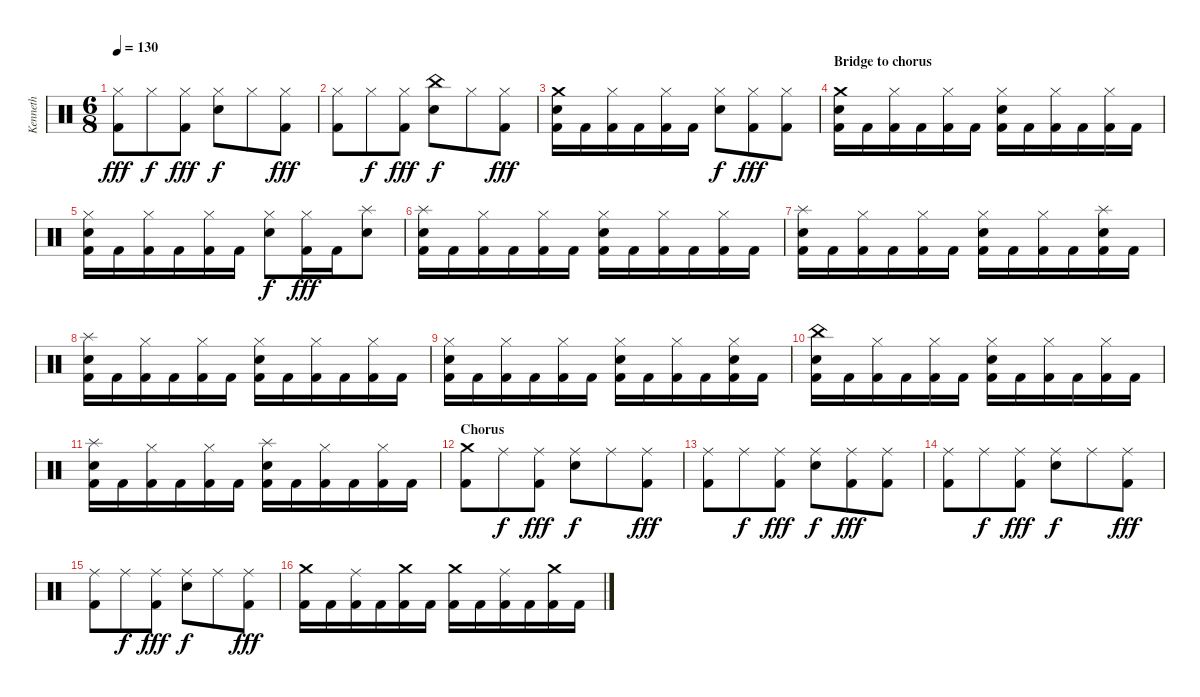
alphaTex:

\track ("Kenneth" "Kenneth") {instrument percussion}
\staff {score}
\articulation defaults
\ts (6 8)
\tempo 130
\clef neutral
\ks c
("Hi-Hat (closed)" "Kick (hit) 2").8{dy fff} "Hi-Hat (closed)".8{dy f} ("Hi-Hat (closed)" "Kick (hit) 2").8{dy fff} ("Hi-Hat (closed)" "Electric Snare (hit)").8{dy f} "Hi-Hat (closed)".8 ("Hi-Hat (closed)" "Kick (hit) 2").8{dy fff} |
("Hi-Hat (closed)" "Kick (hit) 2").8 "Hi-Hat (closed)".8{dy f} ("Hi-Hat (closed)" "Kick (hit) 2").8{dy fff} ("China (hit)" "Electric Snare (hit)").8{dy f} "Hi-Hat (closed)".8 ("Hi-Hat (closed)" "Kick (hit) 2").8{dy fff} |
("Crash medium (hit)" "Electric Snare (hit)" "Kick (hit) 2").16 "Kick (hit) 2".16 ("Hi-Hat (closed)" "Kick (hit) 2").16 "Kick (hit) 2".16 ("Hi-Hat (closed)" "Kick (hit) 2").16 "Kick (hit) 2".16 ("Hi-Hat (closed)" "Electric Snare (hit)").8{dy f} ("Hi-Hat (closed)" "Kick (hit) 2").8{dy fff} ("Hi-Hat (closed)" "Kick (hit) 2").8 |
\section ("" "Bridge to chorus")
("Crash medium (hit)" "Electric Snare (hit)" "Kick (hit) 2").16 "Kick (hit) 2".16 ("Hi-Hat (closed)" "Kick (hit) 2").16 "Kick (hit) 2".16 ("Hi-Hat (closed)" "Kick (hit) 2").16 "Kick (hit) 2".16 ("Hi-Hat (closed)" "Electric Snare (hit)" "Kick (hit) 2").16 "Kick (hit) 2".16 ("Hi-Hat (closed)" "Kick (hit) 2").16 "Kick (hit) 2".16 ("Hi-Hat (closed)" "Kick (hit) 2").16 "Kick (hit) 2".16 |
("Hi-Hat (closed)" "Electric Snare (hit)" "Kick (hit) 2").16 "Kick (hit) 2".16 ("Hi-Hat (closed)" "Kick (hit) 2").16 "Kick (hit) 2".16 ("Hi-Hat (closed)" "Kick (hit) 2").16 "Kick (hit) 2".16 ("Hi-Hat (closed)" "Electric Snare (hit)").8{dy f} ("Hi-Hat (closed)" "Kick (hit) 2").16{dy fff} "Kick (hit) 2".16 ("Splash (hit)" "Electric Snare (hit)").8 |
("Splash (hit)" "Electric Snare (hit)" "Kick (hit) 2").16 "Kick (hit) 2".16 ("Hi-Hat (closed)" "Kick (hit) 2").16 "Kick (hit) 2".16 ("Hi-Hat (closed)" "Kick (hit) 2").16 "Kick (hit) 2".16 ("Hi-Hat (closed)" "Electric Snare (hit)" "Kick (hit) 2").16 "Kick (hit) 2".16 ("Hi-Hat (closed)" "Kick (hit) 2").16 "Kick (hit) 2".16 ("Hi-Hat (closed)" "Kick (hit) 2").16 "Kick (hit) 2".16 |
("Splash (hit)" "Electric Snare (hit)" "Kick (hit) 2").16 "Kick (hit) 2".16 ("Hi-Hat (closed)" "Kick (hit) 2").16 "Kick (hit) 2".16 ("Hi-Hat (closed)" "Kick (hit) 2").16 "Kick (hit) 2".16 ("Hi-Hat (closed)" "Electric Snare (hit)" "Kick (hit) 2").16 "Kick (hit) 2".16 ("Hi-Hat (closed)" "Kick (hit) 2").16 "Kick (hit) 2".16 ("Splash (hit)" "Electric Snare (hit)" "Kick (hit) 2").16 "Kick (hit) 2".16 |
("Splash (hit)" "Electric Snare (hit)" "Kick (hit) 2").16 "Kick (hit) 2".16 ("Hi-Hat (closed)" "Kick (hit) 2").16 "Kick (hit) 2".16 ("Hi-Hat (closed)" "Kick (hit) 2").16 "Kick (hit) 2".16 ("Hi-Hat (closed)" "Electric Snare (hit)" "Kick (hit) 2").16 "Kick (hit) 2".16 ("Hi-Hat (closed)" "Kick (hit) 2").16 "Kick (hit) 2".16 ("Hi-Hat (closed)" "Kick (hit) 2").16 "Kick (hit) 2".16 |
("Hi-Hat (closed)" "Electric Snare (hit)" "Kick (hit) 2").16 "Kick (hit) 2".16 ("Hi-Hat (closed)" "Kick (hit) 2").16 "Kick (hit) 2".16 ("Hi-Hat (closed)" "Kick (hit) 2").16 "Kick (hit) 2".16 ("Hi-Hat (closed)" "Electric Snare (hit)" "Kick (hit) 2").16 "Kick (hit) 2".16 ("Hi-Hat (closed)" "Kick (hit) 2").16 "Kick (hit) 2".16 ("Hi-Hat (closed)" "Electric Snare (hit)" "Kick (hit) 2").16 "Kick (hit) 2".16 |
("China (hit)" "Electric Snare (hit)" "Kick (hit) 2").16 "Kick (hit) 2".16 ("Hi-Hat (closed)" "Kick (hit) 2").16 "Kick (hit) 2".16 ("Hi-Hat (closed)" "Kick (hit) 2").16 "Kick (hit) 2".16 ("Hi-Hat (closed)" "Electric Snare (hit)" "Kick (hit) 2").16 "Kick (hit) 2".16 ("Hi-Hat (closed)" "Kick (hit) 2").16 "Kick (hit) 2".16 ("Hi-Hat (closed)" "Kick (hit) 2").16 "Kick (hit) 2".16 |
("Splash (hit)" "Electric Snare (hit)" "Kick (hit) 2").16 "Kick (hit) 2".16 ("Hi-Hat (closed)" "Kick (hit) 2").16 "Kick (hit) 2".16 ("Hi-Hat (closed)" "Kick (hit) 2").16 "Kick (hit) 2".16 ("Splash (hit)" "Electric Snare (hit)" "Kick (hit) 2").16 "Kick (hit) 2".16 ("Hi-Hat (closed)" "Kick (hit) 2").16 "Kick (hit) 2".16 ("Hi-Hat (closed)" "Kick (hit) 2").16 "Kick (hit) 2".16 |
\section ("" "Chorus")
("Crash medium (hit)" "Kick (hit) 2").8 "Ride (middle)".8{dy f} ("Ride (middle)" "Kick (hit) 2").8{dy fff} ("Ride (middle)" "Electric Snare (hit)").8{dy f} "Ride (middle)".8 ("Ride (middle)" "Kick (hit) 2").8{dy fff} |
("Ride (middle)" "Kick (hit) 2").8 "Ride (middle)".8{dy f} ("Ride (middle)" "Kick (hit) 2").8{dy fff} ("Ride (middle)" "Electric Snare (hit)").8{dy f} ("Ride (middle)" "Kick (hit) 2").8{dy fff} ("Ride (middle)" "Kick (hit) 2").8 |
("Ride (middle)" "Kick (hit) 2").8 "Ride (middle)".8{dy f} ("Ride (middle)" "Kick (hit) 2").8{dy fff} ("Ride (middle)" "Electric Snare (hit)").8{dy f} "Ride (middle)".8 ("Ride (middle)" "Kick (hit) 2").8{dy fff} |
("Ride (middle)" "Kick (hit) 2").8 "Ride (middle)".8{dy f} ("Ride (middle)" "Kick (hit) 2").8{dy fff} ("Ride (middle)" "Electric Snare (hit)").8{dy f} "Ride (middle)".8 ("Ride (middle)" "Kick (hit) 2").8{dy fff} |
("Crash medium (hit)" "Kick (hit) 2").16 "Kick (hit) 2".16 ("Ride (middle)" "Kick (hit) 2").16 "Kick (hit) 2".16 ("Crash medium (hit)" "Kick (hit) 2").16 "Kick (hit) 2".16 ("Crash medium (hit)" "Kick (hit) 2").16 "Kick (hit) 2".16 ("Ride (middle)" "Kick (hit) 2").16 "Kick (hit) 2".16 ("Crash medium (hit)" "Kick (hit) 2").16 "Kick (hit) 2".16
